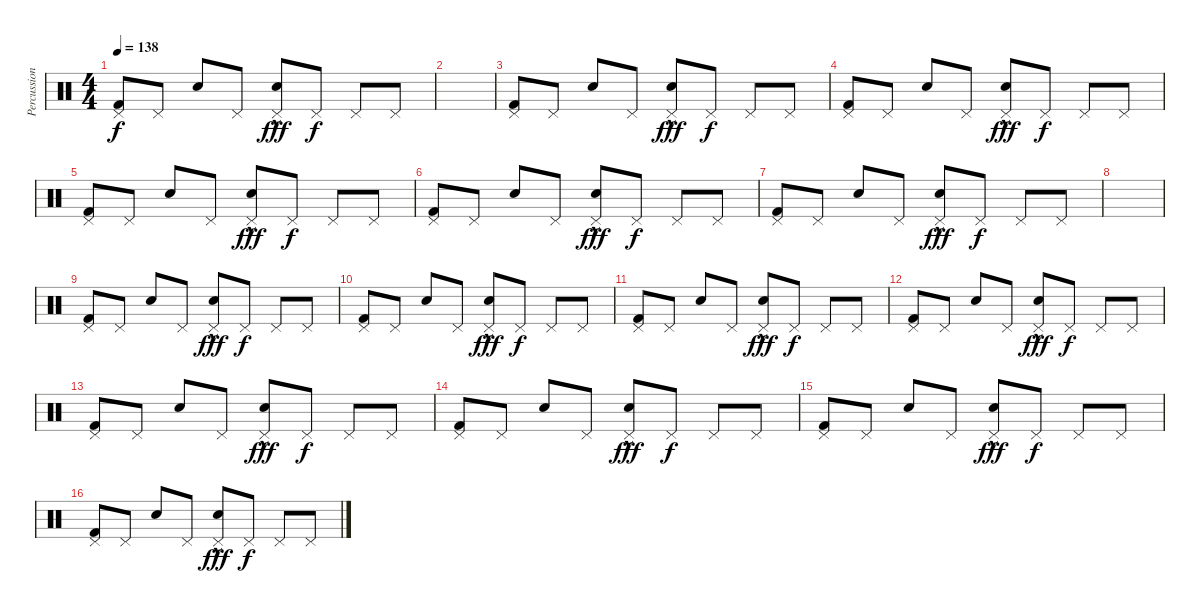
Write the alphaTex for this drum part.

\track ("Percussion" "Percussion") {instrument percussion}
\staff {score}
\articulation defaults
\ts (4 4)
\tempo 138
\clef neutral
\ks c
("Kick (hit) 2" "Pedal Hi-Hat (hit)").8{dy f} "Pedal Hi-Hat (hit)".8 "Snare (hit)".8 "Pedal Hi-Hat (hit)".8 ("Snare (hit) 2"{hac} "Pedal Hi-Hat (hit)").8{dy fff} "Pedal Hi-Hat (hit)".8{dy f} "Pedal Hi-Hat (hit)".8 "Pedal Hi-Hat (hit)".8 |
|
("Kick (hit) 2" "Pedal Hi-Hat (hit)").8 "Pedal Hi-Hat (hit)".8 "Snare (hit)".8 "Pedal Hi-Hat (hit)".8 ("Snare (hit) 2"{hac} "Pedal Hi-Hat (hit)").8{dy fff} "Pedal Hi-Hat (hit)".8{dy f} "Pedal Hi-Hat (hit)".8 "Pedal Hi-Hat (hit)".8 |
("Kick (hit) 2" "Pedal Hi-Hat (hit)").8 "Pedal Hi-Hat (hit)".8 "Snare (hit)".8 "Pedal Hi-Hat (hit)".8 ("Snare (hit) 2"{hac} "Pedal Hi-Hat (hit)").8{dy fff} "Pedal Hi-Hat (hit)".8{dy f} "Pedal Hi-Hat (hit)".8 "Pedal Hi-Hat (hit)".8 |
("Kick (hit) 2" "Pedal Hi-Hat (hit)").8 "Pedal Hi-Hat (hit)".8 "Snare (hit)".8 "Pedal Hi-Hat (hit)".8 ("Snare (hit) 2"{hac} "Pedal Hi-Hat (hit)").8{dy fff} "Pedal Hi-Hat (hit)".8{dy f} "Pedal Hi-Hat (hit)".8 "Pedal Hi-Hat (hit)".8 |
("Kick (hit) 2" "Pedal Hi-Hat (hit)").8 "Pedal Hi-Hat (hit)".8 "Snare (hit)".8 "Pedal Hi-Hat (hit)".8 ("Snare (hit) 2"{hac} "Pedal Hi-Hat (hit)").8{dy fff} "Pedal Hi-Hat (hit)".8{dy f} "Pedal Hi-Hat (hit)".8 "Pedal Hi-Hat (hit)".8 |
("Kick (hit) 2" "Pedal Hi-Hat (hit)").8 "Pedal Hi-Hat (hit)".8 "Snare (hit)".8 "Pedal Hi-Hat (hit)".8 ("Snare (hit) 2"{hac} "Pedal Hi-Hat (hit)").8{dy fff} "Pedal Hi-Hat (hit)".8{dy f} "Pedal Hi-Hat (hit)".8 "Pedal Hi-Hat (hit)".8 |
|
("Kick (hit) 2" "Pedal Hi-Hat (hit)").8 "Pedal Hi-Hat (hit)".8 "Snare (hit)".8 "Pedal Hi-Hat (hit)".8 ("Snare (hit) 2"{hac} "Pedal Hi-Hat (hit)").8{dy fff} "Pedal Hi-Hat (hit)".8{dy f} "Pedal Hi-Hat (hit)".8 "Pedal Hi-Hat (hit)".8 |
("Kick (hit) 2" "Pedal Hi-Hat (hit)").8 "Pedal Hi-Hat (hit)".8 "Snare (hit)".8 "Pedal Hi-Hat (hit)".8 ("Snare (hit) 2"{hac} "Pedal Hi-Hat (hit)").8{dy fff} "Pedal Hi-Hat (hit)".8{dy f} "Pedal Hi-Hat (hit)".8 "Pedal Hi-Hat (hit)".8 |
("Kick (hit) 2" "Pedal Hi-Hat (hit)").8 "Pedal Hi-Hat (hit)".8 "Snare (hit)".8 "Pedal Hi-Hat (hit)".8 ("Snare (hit) 2"{hac} "Pedal Hi-Hat (hit)").8{dy fff} "Pedal Hi-Hat (hit)".8{dy f} "Pedal Hi-Hat (hit)".8 "Pedal Hi-Hat (hit)".8 |
("Kick (hit) 2" "Pedal Hi-Hat (hit)").8 "Pedal Hi-Hat (hit)".8 "Snare (hit)".8 "Pedal Hi-Hat (hit)".8 ("Snare (hit) 2"{hac} "Pedal Hi-Hat (hit)").8{dy fff} "Pedal Hi-Hat (hit)".8{dy f} "Pedal Hi-Hat (hit)".8 "Pedal Hi-Hat (hit)".8 |
("Kick (hit) 2" "Pedal Hi-Hat (hit)").8 "Pedal Hi-Hat (hit)".8 "Snare (hit)".8 "Pedal Hi-Hat (hit)".8 ("Snare (hit) 2"{hac} "Pedal Hi-Hat (hit)").8{dy fff} "Pedal Hi-Hat (hit)".8{dy f} "Pedal Hi-Hat (hit)".8 "Pedal Hi-Hat (hit)".8 |
("Kick (hit) 2" "Pedal Hi-Hat (hit)").8 "Pedal Hi-Hat (hit)".8 "Snare (hit)".8 "Pedal Hi-Hat (hit)".8 ("Snare (hit) 2"{hac} "Pedal Hi-Hat (hit)").8{dy fff} "Pedal Hi-Hat (hit)".8{dy f} "Pedal Hi-Hat (hit)".8 "Pedal Hi-Hat (hit)".8 |
("Kick (hit) 2" "Pedal Hi-Hat (hit)").8 "Pedal Hi-Hat (hit)".8 "Snare (hit)".8 "Pedal Hi-Hat (hit)".8 ("Snare (hit) 2"{hac} "Pedal Hi-Hat (hit)").8{dy fff} "Pedal Hi-Hat (hit)".8{dy f} "Pedal Hi-Hat (hit)".8 "Pedal Hi-Hat (hit)".8 |
("Kick (hit) 2" "Pedal Hi-Hat (hit)").8 "Pedal Hi-Hat (hit)".8 "Snare (hit)".8 "Pedal Hi-Hat (hit)".8 ("Snare (hit) 2"{hac} "Pedal Hi-Hat (hit)").8{dy fff} "Pedal Hi-Hat (hit)".8{dy f} "Pedal Hi-Hat (hit)".8 "Pedal Hi-Hat (hit)".8
